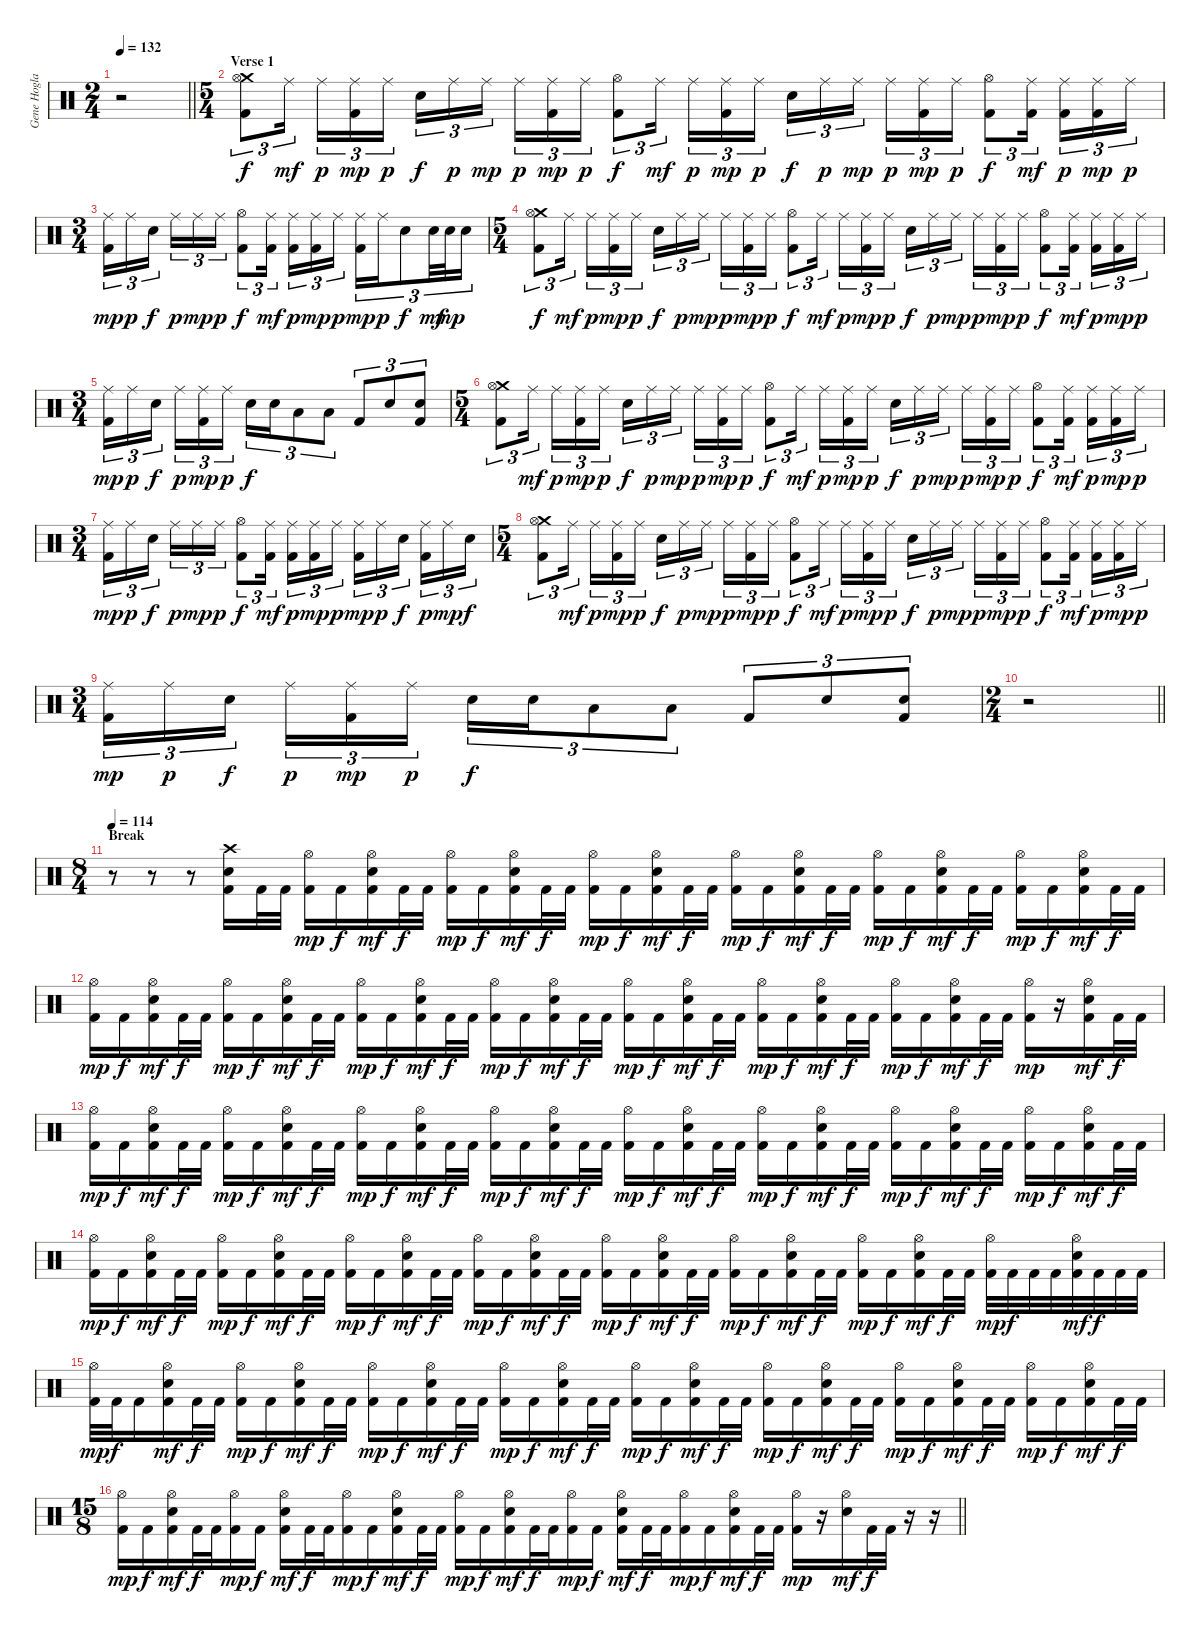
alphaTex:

\track ("Gene Hoglan" "Gene Hogla") {instrument percussion}
\staff {score}
\articulation defaults
\ts (2 4)
\tempo 132
\clef neutral
\barLineRight lightlight
\ks c
r.2{dy f} |
\ts (5 4)
\section ("" "Verse 1")
("Crash medium (hit)" "Hi-Hat (open)" "Kick (hit) 2").8{tu (3 2)} "Ride (middle)".16{tu (3 2) dy mf beam splitsecondary} "Ride (middle)".16{tu (3 2) dy p} ("Ride (middle)" "Kick (hit) 2").16{tu (3 2) dy mp} "Ride (middle)".16{tu (3 2) dy p} "Electric Snare (hit)".16{tu (3 2) dy f} "Ride (middle)".16{tu (3 2) dy p} "Ride (middle)".16{tu (3 2) dy mp beam splitsecondary} "Ride (middle)".16{tu (3 2) dy p} ("Ride (middle)" "Kick (hit) 2").16{tu (3 2) dy mp} "Ride (middle)".16{tu (3 2) dy p} ("Hi-Hat (open)" "Kick (hit) 2").8{tu (3 2) dy f} "Ride (middle)".16{tu (3 2) dy mf beam splitsecondary} "Ride (middle)".16{tu (3 2) dy p} ("Ride (middle)" "Kick (hit) 2").16{tu (3 2) dy mp} "Ride (middle)".16{tu (3 2) dy p} "Electric Snare (hit)".16{tu (3 2) dy f} "Ride (middle)".16{tu (3 2) dy p} "Ride (middle)".16{tu (3 2) dy mp beam splitsecondary} "Ride (middle)".16{tu (3 2) dy p} ("Ride (middle)" "Kick (hit) 2").16{tu (3 2) dy mp} "Ride (middle)".16{tu (3 2) dy p} ("Hi-Hat (open)" "Kick (hit) 2").8{tu (3 2) dy f} ("Ride (middle)" "Kick (hit) 2").16{tu (3 2) dy mf beam splitsecondary} ("Ride (middle)" "Kick (hit) 2").16{tu (3 2) dy p} ("Ride (middle)" "Kick (hit) 2").16{tu (3 2) dy mp} "Ride (middle)".16{tu (3 2) dy p} |
\ts (3 4)
("Ride (middle)" "Kick (hit) 2").16{tu (3 2) dy mp} "Ride (middle)".16{tu (3 2) dy p} "Electric Snare (hit)".16{tu (3 2) dy f beam splitsecondary} "Ride (middle)".16{tu (3 2) dy p} "Ride (middle)".16{tu (3 2) dy mp} "Ride (middle)".16{tu (3 2) dy p} ("Hi-Hat (open)" "Kick (hit) 2").8{tu (3 2) dy f} ("Ride (middle)" "Kick (hit) 2").16{tu (3 2) dy mf beam splitsecondary} ("Ride (middle)" "Kick (hit) 2").16{tu (3 2) dy p} ("Ride (middle)" "Kick (hit) 2").16{tu (3 2) dy mp} "Ride (middle)".16{tu (3 2) dy p} ("Ride (middle)" "Kick (hit) 2").16{tu (3 2) dy mp} "Ride (middle)".16{tu (3 2) dy p} "Electric Snare (hit)".8{tu (3 2) dy f} "Electric Snare (hit)".32{tu (3 2) dy mf} "Electric Snare (hit)".32{tu (3 2) dy mp} "Electric Snare (hit)".16{tu (3 2)} |
\ts (5 4)
("Crash medium (hit)" "Hi-Hat (open)" "Kick (hit) 2").8{tu (3 2) dy f} "Ride (middle)".16{tu (3 2) dy mf beam splitsecondary} "Ride (middle)".16{tu (3 2) dy p} ("Ride (middle)" "Kick (hit) 2").16{tu (3 2) dy mp} "Ride (middle)".16{tu (3 2) dy p} "Electric Snare (hit)".16{tu (3 2) dy f} "Ride (middle)".16{tu (3 2) dy p} "Ride (middle)".16{tu (3 2) dy mp beam splitsecondary} "Ride (middle)".16{tu (3 2) dy p} ("Ride (middle)" "Kick (hit) 2").16{tu (3 2) dy mp} "Ride (middle)".16{tu (3 2) dy p} ("Hi-Hat (open)" "Kick (hit) 2").8{tu (3 2) dy f} "Ride (middle)".16{tu (3 2) dy mf beam splitsecondary} "Ride (middle)".16{tu (3 2) dy p} ("Ride (middle)" "Kick (hit) 2").16{tu (3 2) dy mp} "Ride (middle)".16{tu (3 2) dy p} "Electric Snare (hit)".16{tu (3 2) dy f} "Ride (middle)".16{tu (3 2) dy p} "Ride (middle)".16{tu (3 2) dy mp beam splitsecondary} "Ride (middle)".16{tu (3 2) dy p} ("Ride (middle)" "Kick (hit) 2").16{tu (3 2) dy mp} "Ride (middle)".16{tu (3 2) dy p} ("Hi-Hat (open)" "Kick (hit) 2").8{tu (3 2) dy f} ("Ride (middle)" "Kick (hit) 2").16{tu (3 2) dy mf beam splitsecondary} ("Ride (middle)" "Kick (hit) 2").16{tu (3 2) dy p} ("Ride (middle)" "Kick (hit) 2").16{tu (3 2) dy mp} "Ride (middle)".16{tu (3 2) dy p} |
\ts (3 4)
("Ride (middle)" "Kick (hit) 2").16{tu (3 2) dy mp} "Ride (middle)".16{tu (3 2) dy p} "Electric Snare (hit)".16{tu (3 2) dy f beam splitsecondary} "Ride (middle)".16{tu (3 2) dy p} ("Ride (middle)" "Kick (hit) 2").16{tu (3 2) dy mp} "Ride (middle)".16{tu (3 2) dy p} "Electric Snare (hit)".16{tu (3 2) dy f} "Electric Snare (hit)".16{tu (3 2)} "Low Tom (hit)".8{tu (3 2)} "Low Tom (hit)".8{tu (3 2)} "Kick (hit) 2".8{tu (3 2)} "Electric Snare (hit)".8{tu (3 2)} ("Electric Snare (hit)" "Kick (hit) 2").8{tu (3 2)} |
\ts (5 4)
("Crash medium (hit)" "Hi-Hat (open)" "Kick (hit) 2").8{tu (3 2)} "Ride (middle)".16{tu (3 2) dy mf beam splitsecondary} "Ride (middle)".16{tu (3 2) dy p} ("Ride (middle)" "Kick (hit) 2").16{tu (3 2) dy mp} "Ride (middle)".16{tu (3 2) dy p} "Electric Snare (hit)".16{tu (3 2) dy f} "Ride (middle)".16{tu (3 2) dy p} "Ride (middle)".16{tu (3 2) dy mp beam splitsecondary} "Ride (middle)".16{tu (3 2) dy p} ("Ride (middle)" "Kick (hit) 2").16{tu (3 2) dy mp} "Ride (middle)".16{tu (3 2) dy p} ("Hi-Hat (open)" "Kick (hit) 2").8{tu (3 2) dy f} "Ride (middle)".16{tu (3 2) dy mf beam splitsecondary} "Ride (middle)".16{tu (3 2) dy p} ("Ride (middle)" "Kick (hit) 2").16{tu (3 2) dy mp} "Ride (middle)".16{tu (3 2) dy p} "Electric Snare (hit)".16{tu (3 2) dy f} "Ride (middle)".16{tu (3 2) dy p} "Ride (middle)".16{tu (3 2) dy mp beam splitsecondary} "Ride (middle)".16{tu (3 2) dy p} ("Ride (middle)" "Kick (hit) 2").16{tu (3 2) dy mp} "Ride (middle)".16{tu (3 2) dy p} ("Hi-Hat (open)" "Kick (hit) 2").8{tu (3 2) dy f} ("Ride (middle)" "Kick (hit) 2").16{tu (3 2) dy mf beam splitsecondary} ("Ride (middle)" "Kick (hit) 2").16{tu (3 2) dy p} ("Ride (middle)" "Kick (hit) 2").16{tu (3 2) dy mp} "Ride (middle)".16{tu (3 2) dy p} |
\ts (3 4)
("Ride (middle)" "Kick (hit) 2").16{tu (3 2) dy mp} "Ride (middle)".16{tu (3 2) dy p} "Electric Snare (hit)".16{tu (3 2) dy f beam splitsecondary} "Ride (middle)".16{tu (3 2) dy p} "Ride (middle)".16{tu (3 2) dy mp} "Ride (middle)".16{tu (3 2) dy p} ("Hi-Hat (open)" "Kick (hit) 2").8{tu (3 2) dy f} ("Ride (middle)" "Kick (hit) 2").16{tu (3 2) dy mf beam splitsecondary} ("Ride (middle)" "Kick (hit) 2").16{tu (3 2) dy p} ("Ride (middle)" "Kick (hit) 2").16{tu (3 2) dy mp} "Ride (middle)".16{tu (3 2) dy p} ("Ride (middle)" "Kick (hit) 2").16{tu (3 2) dy mp} "Ride (middle)".16{tu (3 2) dy p} "Electric Snare (hit)".16{tu (3 2) dy f beam splitsecondary} ("Ride (middle)" "Kick (hit) 2").16{tu (3 2) dy p} "Ride (middle)".16{tu (3 2) dy mp} "Electric Snare (hit)".16{tu (3 2) dy f} |
\ts (5 4)
("Crash medium (hit)" "Hi-Hat (open)" "Kick (hit) 2").8{tu (3 2)} "Ride (middle)".16{tu (3 2) dy mf beam splitsecondary} "Ride (middle)".16{tu (3 2) dy p} ("Ride (middle)" "Kick (hit) 2").16{tu (3 2) dy mp} "Ride (middle)".16{tu (3 2) dy p} "Electric Snare (hit)".16{tu (3 2) dy f} "Ride (middle)".16{tu (3 2) dy p} "Ride (middle)".16{tu (3 2) dy mp beam splitsecondary} "Ride (middle)".16{tu (3 2) dy p} ("Ride (middle)" "Kick (hit) 2").16{tu (3 2) dy mp} "Ride (middle)".16{tu (3 2) dy p} ("Hi-Hat (open)" "Kick (hit) 2").8{tu (3 2) dy f} "Ride (middle)".16{tu (3 2) dy mf beam splitsecondary} "Ride (middle)".16{tu (3 2) dy p} ("Ride (middle)" "Kick (hit) 2").16{tu (3 2) dy mp} "Ride (middle)".16{tu (3 2) dy p} "Electric Snare (hit)".16{tu (3 2) dy f} "Ride (middle)".16{tu (3 2) dy p} "Ride (middle)".16{tu (3 2) dy mp beam splitsecondary} "Ride (middle)".16{tu (3 2) dy p} ("Ride (middle)" "Kick (hit) 2").16{tu (3 2) dy mp} "Ride (middle)".16{tu (3 2) dy p} ("Hi-Hat (open)" "Kick (hit) 2").8{tu (3 2) dy f} ("Ride (middle)" "Kick (hit) 2").16{tu (3 2) dy mf beam splitsecondary} ("Ride (middle)" "Kick (hit) 2").16{tu (3 2) dy p} ("Ride (middle)" "Kick (hit) 2").16{tu (3 2) dy mp} "Ride (middle)".16{tu (3 2) dy p} |
\ts (3 4)
("Ride (middle)" "Kick (hit) 2").16{tu (3 2) dy mp} "Ride (middle)".16{tu (3 2) dy p} "Electric Snare (hit)".16{tu (3 2) dy f beam splitsecondary} "Ride (middle)".16{tu (3 2) dy p} ("Ride (middle)" "Kick (hit) 2").16{tu (3 2) dy mp} "Ride (middle)".16{tu (3 2) dy p} "Electric Snare (hit)".16{tu (3 2) dy f} "Electric Snare (hit)".16{tu (3 2)} "Low Tom (hit)".8{tu (3 2)} "Low Tom (hit)".8{tu (3 2)} "Kick (hit) 2".8{tu (3 2)} "Electric Snare (hit)".8{tu (3 2)} ("Electric Snare (hit)" "Kick (hit) 2").8{tu (3 2)} |
\ts (2 4)
\barLineRight lightlight
r.2 |
\ts (8 4)
\section ("" "Break")
\tempo 114
r.8 r.8 r.8 ("Crash high (hit)" "Electric Snare (hit)" "Kick (hit) 2").16 "Kick (hit) 2".32 "Kick (hit) 2".32 ("Hi-Hat (open)" "Kick (hit) 2").16{dy mp} "Kick (hit) 2".16{dy f} ("Hi-Hat (open)" "Electric Snare (hit)" "Kick (hit) 2").16{dy mf} "Kick (hit) 2".32{dy f} "Kick (hit) 2".32 ("Hi-Hat (open)" "Kick (hit) 2").16{dy mp} "Kick (hit) 2".16{dy f} ("Hi-Hat (open)" "Electric Snare (hit)" "Kick (hit) 2").16{dy mf} "Kick (hit) 2".32{dy f} "Kick (hit) 2".32 ("Hi-Hat (open)" "Kick (hit) 2").16{dy mp} "Kick (hit) 2".16{dy f} ("Hi-Hat (open)" "Electric Snare (hit)" "Kick (hit) 2").16{dy mf} "Kick (hit) 2".32{dy f} "Kick (hit) 2".32 ("Hi-Hat (open)" "Kick (hit) 2").16{dy mp} "Kick (hit) 2".16{dy f} ("Hi-Hat (open)" "Electric Snare (hit)" "Kick (hit) 2").16{dy mf} "Kick (hit) 2".32{dy f} "Kick (hit) 2".32 ("Hi-Hat (open)" "Kick (hit) 2").16{dy mp} "Kick (hit) 2".16{dy f} ("Hi-Hat (open)" "Electric Snare (hit)" "Kick (hit) 2").16{dy mf} "Kick (hit) 2".32{dy f} "Kick (hit) 2".32 ("Hi-Hat (open)" "Kick (hit) 2").16{dy mp} "Kick (hit) 2".16{dy f} ("Hi-Hat (open)" "Electric Snare (hit)" "Kick (hit) 2").16{dy mf} "Kick (hit) 2".32{dy f} "Kick (hit) 2".32 |
("Hi-Hat (open)" "Kick (hit) 2").16{dy mp} "Kick (hit) 2".16{dy f} ("Hi-Hat (open)" "Electric Snare (hit)" "Kick (hit) 2").16{dy mf} "Kick (hit) 2".32{dy f} "Kick (hit) 2".32 ("Hi-Hat (open)" "Kick (hit) 2").16{dy mp} "Kick (hit) 2".16{dy f} ("Hi-Hat (open)" "Electric Snare (hit)" "Kick (hit) 2").16{dy mf} "Kick (hit) 2".32{dy f} "Kick (hit) 2".32 ("Hi-Hat (open)" "Kick (hit) 2").16{dy mp} "Kick (hit) 2".16{dy f} ("Hi-Hat (open)" "Electric Snare (hit)" "Kick (hit) 2").16{dy mf} "Kick (hit) 2".32{dy f} "Kick (hit) 2".32 ("Hi-Hat (open)" "Kick (hit) 2").16{dy mp} "Kick (hit) 2".16{dy f} ("Hi-Hat (open)" "Electric Snare (hit)" "Kick (hit) 2").16{dy mf} "Kick (hit) 2".32{dy f} "Kick (hit) 2".32 ("Hi-Hat (open)" "Kick (hit) 2").16{dy mp} "Kick (hit) 2".16{dy f} ("Hi-Hat (open)" "Electric Snare (hit)" "Kick (hit) 2").16{dy mf} "Kick (hit) 2".32{dy f} "Kick (hit) 2".32 ("Hi-Hat (open)" "Kick (hit) 2").16{dy mp} "Kick (hit) 2".16{dy f} ("Hi-Hat (open)" "Electric Snare (hit)" "Kick (hit) 2").16{dy mf} "Kick (hit) 2".32{dy f} "Kick (hit) 2".32 ("Hi-Hat (open)" "Kick (hit) 2").16{dy mp} "Kick (hit) 2".16{dy f} ("Hi-Hat (open)" "Electric Snare (hit)" "Kick (hit) 2").16{dy mf} "Kick (hit) 2".32{dy f} "Kick (hit) 2".32 ("Hi-Hat (open)" "Kick (hit) 2").16{dy mp} r.16 ("Hi-Hat (open)" "Electric Snare (hit)" "Kick (hit) 2").16{dy mf} "Kick (hit) 2".32{dy f} "Kick (hit) 2".32 |
("Hi-Hat (open)" "Kick (hit) 2").16{dy mp} "Kick (hit) 2".16{dy f} ("Hi-Hat (open)" "Electric Snare (hit)" "Kick (hit) 2").16{dy mf} "Kick (hit) 2".32{dy f} "Kick (hit) 2".32 ("Hi-Hat (open)" "Kick (hit) 2").16{dy mp} "Kick (hit) 2".16{dy f} ("Hi-Hat (open)" "Electric Snare (hit)" "Kick (hit) 2").16{dy mf} "Kick (hit) 2".32{dy f} "Kick (hit) 2".32 ("Hi-Hat (open)" "Kick (hit) 2").16{dy mp} "Kick (hit) 2".16{dy f} ("Hi-Hat (open)" "Electric Snare (hit)" "Kick (hit) 2").16{dy mf} "Kick (hit) 2".32{dy f} "Kick (hit) 2".32 ("Hi-Hat (open)" "Kick (hit) 2").16{dy mp} "Kick (hit) 2".16{dy f} ("Hi-Hat (open)" "Electric Snare (hit)" "Kick (hit) 2").16{dy mf} "Kick (hit) 2".32{dy f} "Kick (hit) 2".32 ("Hi-Hat (open)" "Kick (hit) 2").16{dy mp} "Kick (hit) 2".16{dy f} ("Hi-Hat (open)" "Electric Snare (hit)" "Kick (hit) 2").16{dy mf} "Kick (hit) 2".32{dy f} "Kick (hit) 2".32 ("Hi-Hat (open)" "Kick (hit) 2").16{dy mp} "Kick (hit) 2".16{dy f} ("Hi-Hat (open)" "Electric Snare (hit)" "Kick (hit) 2").16{dy mf} "Kick (hit) 2".32{dy f} "Kick (hit) 2".32 ("Hi-Hat (open)" "Kick (hit) 2").16{dy mp} "Kick (hit) 2".16{dy f} ("Hi-Hat (open)" "Electric Snare (hit)" "Kick (hit) 2").16{dy mf} "Kick (hit) 2".32{dy f} "Kick (hit) 2".32 ("Hi-Hat (open)" "Kick (hit) 2").16{dy mp} "Kick (hit) 2".16{dy f} ("Hi-Hat (open)" "Electric Snare (hit)" "Kick (hit) 2").16{dy mf} "Kick (hit) 2".32{dy f} "Kick (hit) 2".32 |
("Hi-Hat (open)" "Kick (hit) 2").16{dy mp} "Kick (hit) 2".16{dy f} ("Hi-Hat (open)" "Electric Snare (hit)" "Kick (hit) 2").16{dy mf} "Kick (hit) 2".32{dy f} "Kick (hit) 2".32 ("Hi-Hat (open)" "Kick (hit) 2").16{dy mp} "Kick (hit) 2".16{dy f} ("Hi-Hat (open)" "Electric Snare (hit)" "Kick (hit) 2").16{dy mf} "Kick (hit) 2".32{dy f} "Kick (hit) 2".32 ("Hi-Hat (open)" "Kick (hit) 2").16{dy mp} "Kick (hit) 2".16{dy f} ("Hi-Hat (open)" "Electric Snare (hit)" "Kick (hit) 2").16{dy mf} "Kick (hit) 2".32{dy f} "Kick (hit) 2".32 ("Hi-Hat (open)" "Kick (hit) 2").16{dy mp} "Kick (hit) 2".16{dy f} ("Hi-Hat (open)" "Electric Snare (hit)" "Kick (hit) 2").16{dy mf} "Kick (hit) 2".32{dy f} "Kick (hit) 2".32 ("Hi-Hat (open)" "Kick (hit) 2").16{dy mp} "Kick (hit) 2".16{dy f} ("Hi-Hat (open)" "Electric Snare (hit)" "Kick (hit) 2").16{dy mf} "Kick (hit) 2".32{dy f} "Kick (hit) 2".32 ("Hi-Hat (open)" "Kick (hit) 2").16{dy mp} "Kick (hit) 2".16{dy f} ("Hi-Hat (open)" "Electric Snare (hit)" "Kick (hit) 2").16{dy mf} "Kick (hit) 2".32{dy f} "Kick (hit) 2".32 ("Hi-Hat (open)" "Kick (hit) 2").16{dy mp} "Kick (hit) 2".16{dy f} ("Hi-Hat (open)" "Electric Snare (hit)" "Kick (hit) 2").16{dy mf} "Kick (hit) 2".32{dy f} "Kick (hit) 2".32 ("Hi-Hat (open)" "Kick (hit) 2").32{dy mp} "Kick (hit) 2".32{dy f} "Kick (hit) 2".32 "Kick (hit) 2".32 ("Hi-Hat (open)" "Electric Snare (hit)" "Kick (hit) 2").32{dy mf} "Kick (hit) 2".32{dy f} "Kick (hit) 2".32 "Kick (hit) 2".32 |
("Hi-Hat (open)" "Kick (hit) 2").32{dy mp} "Kick (hit) 2".32{dy f} "Kick (hit) 2".16 ("Hi-Hat (open)" "Electric Snare (hit)" "Kick (hit) 2").16{dy mf} "Kick (hit) 2".32{dy f} "Kick (hit) 2".32 ("Hi-Hat (open)" "Kick (hit) 2").16{dy mp} "Kick (hit) 2".16{dy f} ("Hi-Hat (open)" "Electric Snare (hit)" "Kick (hit) 2").16{dy mf} "Kick (hit) 2".32{dy f} "Kick (hit) 2".32 ("Hi-Hat (open)" "Kick (hit) 2").16{dy mp} "Kick (hit) 2".16{dy f} ("Hi-Hat (open)" "Electric Snare (hit)" "Kick (hit) 2").16{dy mf} "Kick (hit) 2".32{dy f} "Kick (hit) 2".32 ("Hi-Hat (open)" "Kick (hit) 2").16{dy mp} "Kick (hit) 2".16{dy f} ("Hi-Hat (open)" "Electric Snare (hit)" "Kick (hit) 2").16{dy mf} "Kick (hit) 2".32{dy f} "Kick (hit) 2".32 ("Hi-Hat (open)" "Kick (hit) 2").16{dy mp} "Kick (hit) 2".16{dy f} ("Hi-Hat (open)" "Electric Snare (hit)" "Kick (hit) 2").16{dy mf} "Kick (hit) 2".32{dy f} "Kick (hit) 2".32 ("Hi-Hat (open)" "Kick (hit) 2").16{dy mp} "Kick (hit) 2".16{dy f} ("Hi-Hat (open)" "Electric Snare (hit)" "Kick (hit) 2").16{dy mf} "Kick (hit) 2".32{dy f} "Kick (hit) 2".32 ("Hi-Hat (open)" "Kick (hit) 2").16{dy mp} "Kick (hit) 2".16{dy f} ("Hi-Hat (open)" "Electric Snare (hit)" "Kick (hit) 2").16{dy mf} "Kick (hit) 2".32{dy f} "Kick (hit) 2".32 ("Hi-Hat (open)" "Kick (hit) 2").16{dy mp} "Kick (hit) 2".16{dy f} ("Hi-Hat (open)" "Electric Snare (hit)" "Kick (hit) 2").16{dy mf} "Kick (hit) 2".32{dy f} "Kick (hit) 2".32 |
\ts (15 8)
\barLineRight lightlight
("Hi-Hat (open)" "Kick (hit) 2").16{dy mp} "Kick (hit) 2".16{dy f} ("Hi-Hat (open)" "Electric Snare (hit)" "Kick (hit) 2").16{dy mf} "Kick (hit) 2".32{dy f} "Kick (hit) 2".32 ("Hi-Hat (open)" "Kick (hit) 2").16{dy mp} "Kick (hit) 2".16{dy f} ("Hi-Hat (open)" "Electric Snare (hit)" "Kick (hit) 2").16{dy mf} "Kick (hit) 2".32{dy f} "Kick (hit) 2".32 ("Hi-Hat (open)" "Kick (hit) 2").16{dy mp} "Kick (hit) 2".16{dy f} ("Hi-Hat (open)" "Electric Snare (hit)" "Kick (hit) 2").16{dy mf} "Kick (hit) 2".32{dy f} "Kick (hit) 2".32 ("Hi-Hat (open)" "Kick (hit) 2").16{dy mp} "Kick (hit) 2".16{dy f} ("Hi-Hat (open)" "Electric Snare (hit)" "Kick (hit) 2").16{dy mf} "Kick (hit) 2".32{dy f} "Kick (hit) 2".32 ("Hi-Hat (open)" "Kick (hit) 2").16{dy mp} "Kick (hit) 2".16{dy f} ("Hi-Hat (open)" "Electric Snare (hit)" "Kick (hit) 2").16{dy mf} "Kick (hit) 2".32{dy f} "Kick (hit) 2".32 ("Hi-Hat (open)" "Kick (hit) 2").16{dy mp} "Kick (hit) 2".16{dy f} ("Hi-Hat (open)" "Electric Snare (hit)" "Kick (hit) 2").16{dy mf} "Kick (hit) 2".32{dy f} "Kick (hit) 2".32 ("Hi-Hat (open)" "Kick (hit) 2").16{dy mp} r.16 ("Hi-Hat (open)" "Electric Snare (hit)").16{dy mf} "Kick (hit) 2".32{dy f} "Kick (hit) 2".32 r.16 r.16
